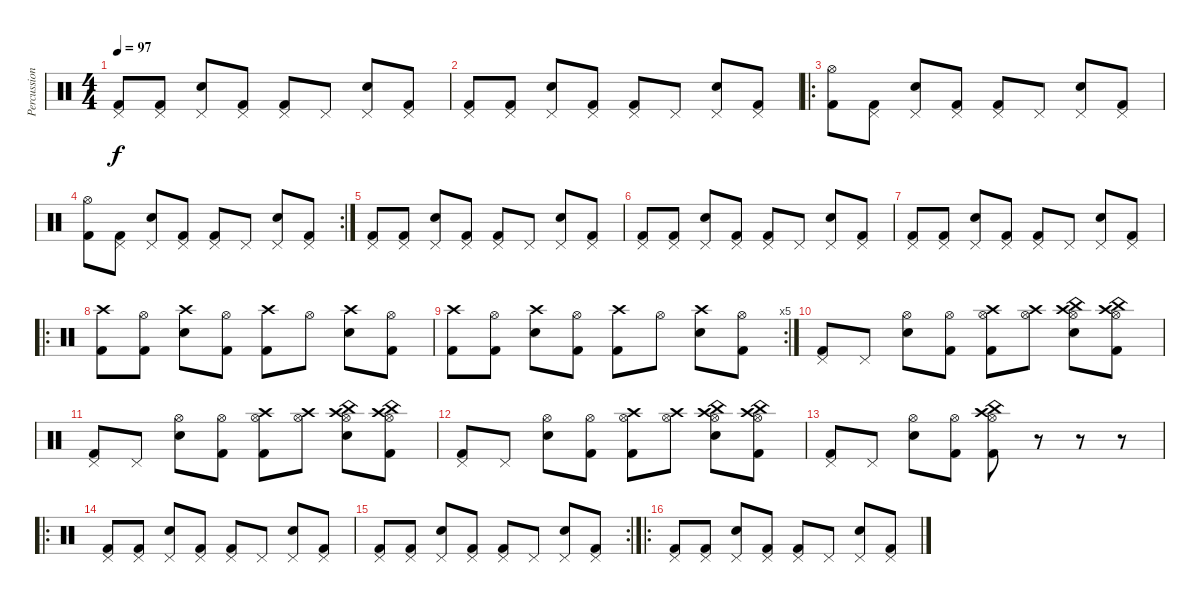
\track ("Percussioni" "Percussion") {instrument percussion}
\staff {score}
\articulation defaults
\ts (4 4)
\tempo 97
\clef neutral
\ks c
("Pedal Hi-Hat (hit)" "Kick (hit) 2").8{dy f} ("Pedal Hi-Hat (hit)" "Kick (hit) 2").8 ("Pedal Hi-Hat (hit)" "Snare (hit) 2").8 ("Pedal Hi-Hat (hit)" "Kick (hit) 2").8 ("Pedal Hi-Hat (hit)" "Kick (hit) 2").8 "Pedal Hi-Hat (hit)".8 ("Pedal Hi-Hat (hit)" "Snare (hit) 2").8 ("Pedal Hi-Hat (hit)" "Kick (hit) 2").8 |
("Pedal Hi-Hat (hit)" "Kick (hit) 2").8 ("Pedal Hi-Hat (hit)" "Kick (hit) 2").8 ("Pedal Hi-Hat (hit)" "Snare (hit) 2").8 ("Pedal Hi-Hat (hit)" "Kick (hit) 2").8 ("Pedal Hi-Hat (hit)" "Kick (hit) 2").8 "Pedal Hi-Hat (hit)".8 ("Pedal Hi-Hat (hit)" "Snare (hit) 2").8 ("Pedal Hi-Hat (hit)" "Kick (hit) 2").8 |
\ro
("Hi-Hat (open)" "Kick (hit) 2").8 ("Pedal Hi-Hat (hit)" "Kick (hit) 2").8 ("Pedal Hi-Hat (hit)" "Snare (hit) 2").8 ("Pedal Hi-Hat (hit)" "Kick (hit) 2").8 ("Pedal Hi-Hat (hit)" "Kick (hit) 2").8 "Pedal Hi-Hat (hit)".8 ("Pedal Hi-Hat (hit)" "Snare (hit) 2").8 ("Pedal Hi-Hat (hit)" "Kick (hit) 2").8 |
\rc 2
("Hi-Hat (open)" "Kick (hit) 2").8 ("Pedal Hi-Hat (hit)" "Kick (hit) 2").8 ("Pedal Hi-Hat (hit)" "Snare (hit) 2").8 ("Pedal Hi-Hat (hit)" "Kick (hit) 2").8 ("Pedal Hi-Hat (hit)" "Kick (hit) 2").8 "Pedal Hi-Hat (hit)".8 ("Pedal Hi-Hat (hit)" "Snare (hit) 2").8 ("Pedal Hi-Hat (hit)" "Kick (hit) 2").8 |
("Pedal Hi-Hat (hit)" "Kick (hit) 2").8 ("Pedal Hi-Hat (hit)" "Kick (hit) 2").8 ("Pedal Hi-Hat (hit)" "Snare (hit) 2").8 ("Pedal Hi-Hat (hit)" "Kick (hit) 2").8 ("Pedal Hi-Hat (hit)" "Kick (hit) 2").8 "Pedal Hi-Hat (hit)".8 ("Pedal Hi-Hat (hit)" "Snare (hit) 2").8 ("Pedal Hi-Hat (hit)" "Kick (hit) 2").8 |
("Pedal Hi-Hat (hit)" "Kick (hit) 2").8 ("Pedal Hi-Hat (hit)" "Kick (hit) 2").8 ("Pedal Hi-Hat (hit)" "Snare (hit) 2").8 ("Pedal Hi-Hat (hit)" "Kick (hit) 2").8 ("Pedal Hi-Hat (hit)" "Kick (hit) 2").8 "Pedal Hi-Hat (hit)".8 ("Pedal Hi-Hat (hit)" "Snare (hit) 2").8 ("Pedal Hi-Hat (hit)" "Kick (hit) 2").8 |
("Pedal Hi-Hat (hit)" "Kick (hit) 2").8 ("Pedal Hi-Hat (hit)" "Kick (hit) 2").8 ("Pedal Hi-Hat (hit)" "Snare (hit) 2").8 ("Pedal Hi-Hat (hit)" "Kick (hit) 2").8 ("Pedal Hi-Hat (hit)" "Kick (hit) 2").8 "Pedal Hi-Hat (hit)".8 ("Pedal Hi-Hat (hit)" "Snare (hit) 2").8 ("Pedal Hi-Hat (hit)" "Kick (hit) 2").8 |
\ro
("Crash high (hit)" "Kick (hit) 2").8 ("Hi-Hat (open)" "Kick (hit) 2").8 ("Crash high (hit)" "Snare (hit) 2").8 ("Hi-Hat (open)" "Kick (hit) 2").8 ("Crash high (hit)" "Kick (hit) 2").8 "Hi-Hat (open)".8 ("Crash high (hit)" "Snare (hit) 2").8 ("Hi-Hat (open)" "Kick (hit) 2").8 |
\rc 5
("Crash high (hit)" "Kick (hit) 2").8 ("Hi-Hat (open)" "Kick (hit) 2").8 ("Crash high (hit)" "Snare (hit) 2").8 ("Hi-Hat (open)" "Kick (hit) 2").8 ("Crash high (hit)" "Kick (hit) 2").8 "Hi-Hat (open)".8 ("Crash high (hit)" "Snare (hit) 2").8 ("Hi-Hat (open)" "Kick (hit) 2").8 |
("Pedal Hi-Hat (hit)" "Kick (hit) 2").8 "Pedal Hi-Hat (hit)".8 ("Hi-Hat (open)" "Snare (hit) 2").8 ("Hi-Hat (open)" "Kick (hit) 2").8 ("Hi-Hat (open)" "Crash high (hit)" "Kick (hit) 2").8 ("Hi-Hat (open)" "Crash high (hit)").8 ("China (hit)" "Crash high (hit)" "Snare (hit) 2" "Hi-Hat (open)").8 ("China (hit)" "Crash high (hit)" "Hi-Hat (open)" "Kick (hit) 2").8 |
("Pedal Hi-Hat (hit)" "Kick (hit) 2").8 "Pedal Hi-Hat (hit)".8 ("Hi-Hat (open)" "Snare (hit) 2").8 ("Hi-Hat (open)" "Kick (hit) 2").8 ("Hi-Hat (open)" "Crash high (hit)" "Kick (hit) 2").8 ("Hi-Hat (open)" "Crash high (hit)").8 ("China (hit)" "Crash high (hit)" "Snare (hit) 2" "Hi-Hat (open)").8 ("China (hit)" "Crash high (hit)" "Hi-Hat (open)" "Kick (hit) 2").8 |
("Pedal Hi-Hat (hit)" "Kick (hit) 2").8 "Pedal Hi-Hat (hit)".8 ("Hi-Hat (open)" "Snare (hit) 2").8 ("Hi-Hat (open)" "Kick (hit) 2").8 ("Hi-Hat (open)" "Crash high (hit)" "Kick (hit) 2").8 ("Hi-Hat (open)" "Crash high (hit)").8 ("China (hit)" "Crash high (hit)" "Snare (hit) 2" "Hi-Hat (open)").8 ("China (hit)" "Crash high (hit)" "Hi-Hat (open)" "Kick (hit) 2").8 |
("Pedal Hi-Hat (hit)" "Kick (hit) 2").8 "Pedal Hi-Hat (hit)".8 ("Hi-Hat (open)" "Snare (hit) 2").8 ("Hi-Hat (open)" "Kick (hit) 2").8 ("China (hit)" "Hi-Hat (open)" "Crash high (hit)" "Kick (hit) 2").8 r.8 r.8 r.8 |
\ro
("Pedal Hi-Hat (hit)" "Kick (hit) 2").8 ("Pedal Hi-Hat (hit)" "Kick (hit) 2").8 ("Pedal Hi-Hat (hit)" "Snare (hit) 2").8 ("Pedal Hi-Hat (hit)" "Kick (hit) 2").8 ("Pedal Hi-Hat (hit)" "Kick (hit) 2").8 "Pedal Hi-Hat (hit)".8 ("Pedal Hi-Hat (hit)" "Snare (hit) 2").8 ("Pedal Hi-Hat (hit)" "Kick (hit) 2").8 |
\rc 2
("Pedal Hi-Hat (hit)" "Kick (hit) 2").8 ("Pedal Hi-Hat (hit)" "Kick (hit) 2").8 ("Pedal Hi-Hat (hit)" "Snare (hit) 2").8 ("Pedal Hi-Hat (hit)" "Kick (hit) 2").8 ("Pedal Hi-Hat (hit)" "Kick (hit) 2").8 "Pedal Hi-Hat (hit)".8 ("Pedal Hi-Hat (hit)" "Snare (hit) 2").8 ("Pedal Hi-Hat (hit)" "Kick (hit) 2").8 |
\ro
("Pedal Hi-Hat (hit)" "Kick (hit) 2").8 ("Pedal Hi-Hat (hit)" "Kick (hit) 2").8 ("Pedal Hi-Hat (hit)" "Snare (hit) 2").8 ("Pedal Hi-Hat (hit)" "Kick (hit) 2").8 ("Pedal Hi-Hat (hit)" "Kick (hit) 2").8 "Pedal Hi-Hat (hit)".8 ("Pedal Hi-Hat (hit)" "Snare (hit) 2").8 ("Pedal Hi-Hat (hit)" "Kick (hit) 2").8
